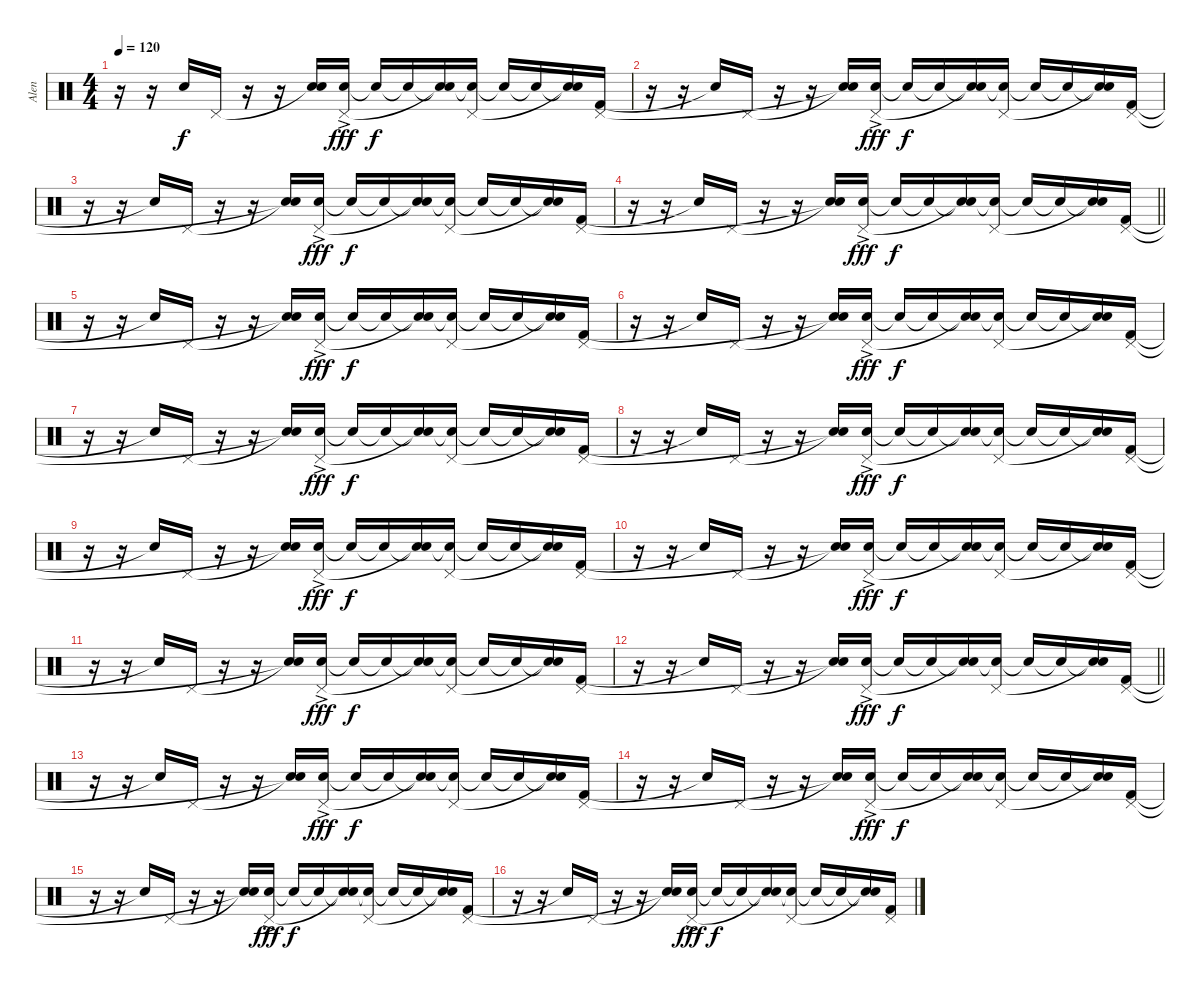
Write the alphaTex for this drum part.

\track ("Alen" "Alen") {instrument percussion}
\staff {score}
\articulation defaults
\ts (4 4)
\tempo 120
\clef neutral
\ks c
r.16{dy f} r.16 "Snare (hit)"{t}.16 "Pedal Hi-Hat (hit)".16 r.16 r.16 ("Snare (hit)"{t} "Snare (hit)"{t}).16 ("Snare (hit) 2"{ac} "Pedal Hi-Hat (hit)").16{dy fff} "Snare (hit)"{t}.16{dy f} "Snare (hit)"{t}.16 ("Snare (hit)"{t} "Snare (hit)"{t}).16 ("Snare (hit)"{t} "Pedal Hi-Hat (hit)").16 "Snare (hit)"{t}.16 "Snare (hit)"{t}.16 ("Snare (hit)"{t} "Snare (hit)"{t}).16 ("Kick (hit) 2" "Pedal Hi-Hat (hit)").16 |
r.16 r.16 "Snare (hit)"{t}.16 "Pedal Hi-Hat (hit)".16 r.16 r.16 ("Snare (hit)"{t} "Snare (hit)"{t}).16 ("Snare (hit) 2"{ac} "Pedal Hi-Hat (hit)").16{dy fff} "Snare (hit)"{t}.16{dy f} "Snare (hit)"{t}.16 ("Snare (hit)"{t} "Snare (hit)"{t}).16 ("Snare (hit)"{t} "Pedal Hi-Hat (hit)").16 "Snare (hit)"{t}.16 "Snare (hit)"{t}.16 ("Snare (hit)"{t} "Snare (hit)"{t}).16 ("Kick (hit) 2" "Pedal Hi-Hat (hit)").16 |
r.16 r.16 "Snare (hit)"{t}.16 "Pedal Hi-Hat (hit)".16 r.16 r.16 ("Snare (hit)"{t} "Snare (hit)"{t}).16 ("Snare (hit) 2"{ac} "Pedal Hi-Hat (hit)").16{dy fff} "Snare (hit)"{t}.16{dy f} "Snare (hit)"{t}.16 ("Snare (hit)"{t} "Snare (hit)"{t}).16 ("Snare (hit)"{t} "Pedal Hi-Hat (hit)").16 "Snare (hit)"{t}.16 "Snare (hit)"{t}.16 ("Snare (hit)"{t} "Snare (hit)"{t}).16 ("Kick (hit) 2" "Pedal Hi-Hat (hit)").16 |
\barLineRight lightlight
r.16 r.16 "Snare (hit)"{t}.16 "Pedal Hi-Hat (hit)".16 r.16 r.16 ("Snare (hit)"{t} "Snare (hit)"{t}).16 ("Snare (hit) 2"{ac} "Pedal Hi-Hat (hit)").16{dy fff} "Snare (hit)"{t}.16{dy f} "Snare (hit)"{t}.16 ("Snare (hit)"{t} "Snare (hit)"{t}).16 ("Snare (hit)"{t} "Pedal Hi-Hat (hit)").16 "Snare (hit)"{t}.16 "Snare (hit)"{t}.16 ("Snare (hit)"{t} "Snare (hit)"{t}).16 ("Kick (hit) 2" "Pedal Hi-Hat (hit)").16 |
r.16 r.16 "Snare (hit)"{t}.16 "Pedal Hi-Hat (hit)".16 r.16 r.16 ("Snare (hit)"{t} "Snare (hit)"{t}).16 ("Snare (hit) 2"{ac} "Pedal Hi-Hat (hit)").16{dy fff} "Snare (hit)"{t}.16{dy f} "Snare (hit)"{t}.16 ("Snare (hit)"{t} "Snare (hit)"{t}).16 ("Snare (hit)"{t} "Pedal Hi-Hat (hit)").16 "Snare (hit)"{t}.16 "Snare (hit)"{t}.16 ("Snare (hit)"{t} "Snare (hit)"{t}).16 ("Kick (hit) 2" "Pedal Hi-Hat (hit)").16 |
r.16 r.16 "Snare (hit)"{t}.16 "Pedal Hi-Hat (hit)".16 r.16 r.16 ("Snare (hit)"{t} "Snare (hit)"{t}).16 ("Snare (hit) 2"{ac} "Pedal Hi-Hat (hit)").16{dy fff} "Snare (hit)"{t}.16{dy f} "Snare (hit)"{t}.16 ("Snare (hit)"{t} "Snare (hit)"{t}).16 ("Snare (hit)"{t} "Pedal Hi-Hat (hit)").16 "Snare (hit)"{t}.16 "Snare (hit)"{t}.16 ("Snare (hit)"{t} "Snare (hit)"{t}).16 ("Kick (hit) 2" "Pedal Hi-Hat (hit)").16 |
r.16 r.16 "Snare (hit)"{t}.16 "Pedal Hi-Hat (hit)".16 r.16 r.16 ("Snare (hit)"{t} "Snare (hit)"{t}).16 ("Snare (hit) 2"{ac} "Pedal Hi-Hat (hit)").16{dy fff} "Snare (hit)"{t}.16{dy f} "Snare (hit)"{t}.16 ("Snare (hit)"{t} "Snare (hit)"{t}).16 ("Snare (hit)"{t} "Pedal Hi-Hat (hit)").16 "Snare (hit)"{t}.16 "Snare (hit)"{t}.16 ("Snare (hit)"{t} "Snare (hit)"{t}).16 ("Kick (hit) 2" "Pedal Hi-Hat (hit)").16 |
r.16 r.16 "Snare (hit)"{t}.16 "Pedal Hi-Hat (hit)".16 r.16 r.16 ("Snare (hit)"{t} "Snare (hit)"{t}).16 ("Snare (hit) 2"{ac} "Pedal Hi-Hat (hit)").16{dy fff} "Snare (hit)"{t}.16{dy f} "Snare (hit)"{t}.16 ("Snare (hit)"{t} "Snare (hit)"{t}).16 ("Snare (hit)"{t} "Pedal Hi-Hat (hit)").16 "Snare (hit)"{t}.16 "Snare (hit)"{t}.16 ("Snare (hit)"{t} "Snare (hit)"{t}).16 ("Kick (hit) 2" "Pedal Hi-Hat (hit)").16 |
r.16 r.16 "Snare (hit)"{t}.16 "Pedal Hi-Hat (hit)".16 r.16 r.16 ("Snare (hit)"{t} "Snare (hit)"{t}).16 ("Snare (hit) 2"{ac} "Pedal Hi-Hat (hit)").16{dy fff} "Snare (hit)"{t}.16{dy f} "Snare (hit)"{t}.16 ("Snare (hit)"{t} "Snare (hit)"{t}).16 ("Snare (hit)"{t} "Pedal Hi-Hat (hit)").16 "Snare (hit)"{t}.16 "Snare (hit)"{t}.16 ("Snare (hit)"{t} "Snare (hit)"{t}).16 ("Kick (hit) 2" "Pedal Hi-Hat (hit)").16 |
r.16 r.16 "Snare (hit)"{t}.16 "Pedal Hi-Hat (hit)".16 r.16 r.16 ("Snare (hit)"{t} "Snare (hit)"{t}).16 ("Snare (hit) 2"{ac} "Pedal Hi-Hat (hit)").16{dy fff} "Snare (hit)"{t}.16{dy f} "Snare (hit)"{t}.16 ("Snare (hit)"{t} "Snare (hit)"{t}).16 ("Snare (hit)"{t} "Pedal Hi-Hat (hit)").16 "Snare (hit)"{t}.16 "Snare (hit)"{t}.16 ("Snare (hit)"{t} "Snare (hit)"{t}).16 ("Kick (hit) 2" "Pedal Hi-Hat (hit)").16 |
r.16 r.16 "Snare (hit)"{t}.16 "Pedal Hi-Hat (hit)".16 r.16 r.16 ("Snare (hit)"{t} "Snare (hit)"{t}).16 ("Snare (hit) 2"{ac} "Pedal Hi-Hat (hit)").16{dy fff} "Snare (hit)"{t}.16{dy f} "Snare (hit)"{t}.16 ("Snare (hit)"{t} "Snare (hit)"{t}).16 ("Snare (hit)"{t} "Pedal Hi-Hat (hit)").16 "Snare (hit)"{t}.16 "Snare (hit)"{t}.16 ("Snare (hit)"{t} "Snare (hit)"{t}).16 ("Kick (hit) 2" "Pedal Hi-Hat (hit)").16 |
\barLineRight lightlight
r.16 r.16 "Snare (hit)"{t}.16 "Pedal Hi-Hat (hit)".16 r.16 r.16 ("Snare (hit)"{t} "Snare (hit)"{t}).16 ("Snare (hit) 2"{ac} "Pedal Hi-Hat (hit)").16{dy fff} "Snare (hit)"{t}.16{dy f} "Snare (hit)"{t}.16 ("Snare (hit)"{t} "Snare (hit)"{t}).16 ("Snare (hit)"{t} "Pedal Hi-Hat (hit)").16 "Snare (hit)"{t}.16 "Snare (hit)"{t}.16 ("Snare (hit)"{t} "Snare (hit)"{t}).16 ("Kick (hit) 2" "Pedal Hi-Hat (hit)").16 |
r.16 r.16 "Snare (hit)"{t}.16 "Pedal Hi-Hat (hit)".16 r.16 r.16 ("Snare (hit)"{t} "Snare (hit)"{t}).16 ("Snare (hit) 2"{ac} "Pedal Hi-Hat (hit)").16{dy fff} "Snare (hit)"{t}.16{dy f} "Snare (hit)"{t}.16 ("Snare (hit)"{t} "Snare (hit)"{t}).16 ("Snare (hit)"{t} "Pedal Hi-Hat (hit)").16 "Snare (hit)"{t}.16 "Snare (hit)"{t}.16 ("Snare (hit)"{t} "Snare (hit)"{t}).16 ("Kick (hit) 2" "Pedal Hi-Hat (hit)").16 |
r.16 r.16 "Snare (hit)"{t}.16 "Pedal Hi-Hat (hit)".16 r.16 r.16 ("Snare (hit)"{t} "Snare (hit)"{t}).16 ("Snare (hit) 2"{ac} "Pedal Hi-Hat (hit)").16{dy fff} "Snare (hit)"{t}.16{dy f} "Snare (hit)"{t}.16 ("Snare (hit)"{t} "Snare (hit)"{t}).16 ("Snare (hit)"{t} "Pedal Hi-Hat (hit)").16 "Snare (hit)"{t}.16 "Snare (hit)"{t}.16 ("Snare (hit)"{t} "Snare (hit)"{t}).16 ("Kick (hit) 2" "Pedal Hi-Hat (hit)").16 |
r.16 r.16 "Snare (hit)"{t}.16 "Pedal Hi-Hat (hit)".16 r.16 r.16 ("Snare (hit)"{t} "Snare (hit)"{t}).16 ("Snare (hit) 2"{ac} "Pedal Hi-Hat (hit)").16{dy fff} "Snare (hit)"{t}.16{dy f} "Snare (hit)"{t}.16 ("Snare (hit)"{t} "Snare (hit)"{t}).16 ("Snare (hit)"{t} "Pedal Hi-Hat (hit)").16 "Snare (hit)"{t}.16 "Snare (hit)"{t}.16 ("Snare (hit)"{t} "Snare (hit)"{t}).16 ("Kick (hit) 2" "Pedal Hi-Hat (hit)").16 |
r.16 r.16 "Snare (hit)"{t}.16 "Pedal Hi-Hat (hit)".16 r.16 r.16 ("Snare (hit)"{t} "Snare (hit)"{t}).16 ("Snare (hit) 2"{ac} "Pedal Hi-Hat (hit)").16{dy fff} "Snare (hit)"{t}.16{dy f} "Snare (hit)"{t}.16 ("Snare (hit)"{t} "Snare (hit)"{t}).16 ("Snare (hit)"{t} "Pedal Hi-Hat (hit)").16 "Snare (hit)"{t}.16 "Snare (hit)"{t}.16 ("Snare (hit)"{t} "Snare (hit)"{t}).16 ("Kick (hit) 2" "Pedal Hi-Hat (hit)").16
